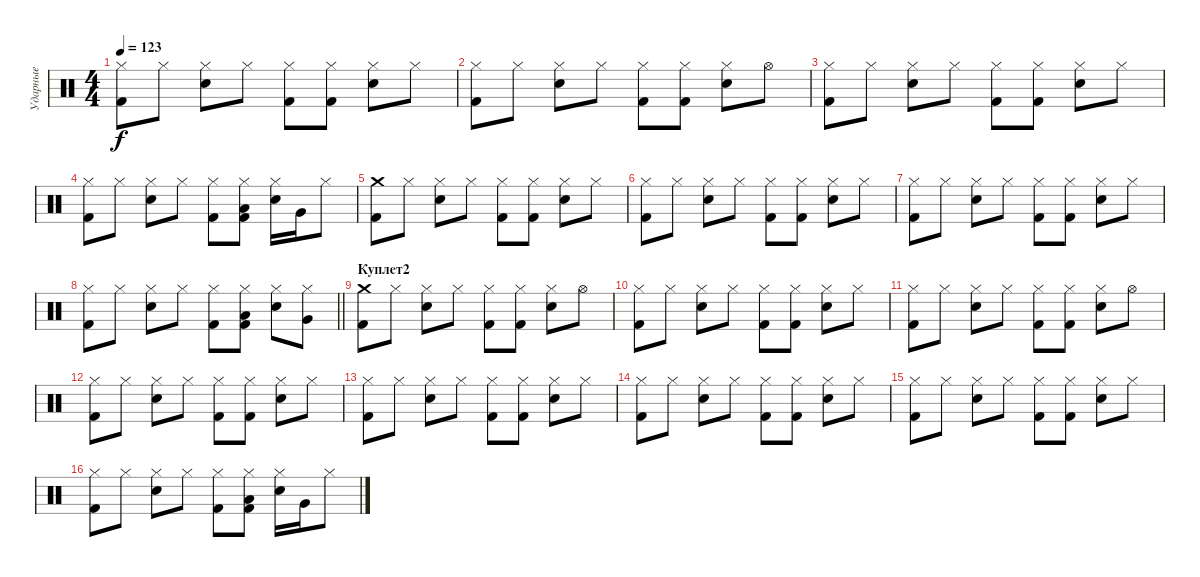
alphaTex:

\track ("Ударные" "Ударные") {instrument percussion}
\staff {score}
\articulation defaults
\ts (4 4)
\tempo 123
\clef neutral
\ks c
("Hi-Hat (closed)" "Kick (hit) 2").8{dy f} "Hi-Hat (closed)".8 ("Hi-Hat (closed)" "Electric Snare (hit)").8 "Hi-Hat (closed)".8 ("Hi-Hat (closed)" "Kick (hit) 2").8 ("Hi-Hat (closed)" "Kick (hit) 2").8 ("Hi-Hat (closed)" "Electric Snare (hit)").8 "Hi-Hat (closed)".8 |
("Hi-Hat (closed)" "Kick (hit) 2").8 "Hi-Hat (closed)".8 ("Hi-Hat (closed)" "Electric Snare (hit)").8 "Hi-Hat (closed)".8 ("Hi-Hat (closed)" "Kick (hit) 2").8 ("Hi-Hat (closed)" "Kick (hit) 2").8 ("Hi-Hat (closed)" "Electric Snare (hit)").8 "Hi-Hat (open)".8 |
("Hi-Hat (closed)" "Kick (hit) 2").8 "Hi-Hat (closed)".8 ("Hi-Hat (closed)" "Electric Snare (hit)").8 "Hi-Hat (closed)".8 ("Hi-Hat (closed)" "Kick (hit) 2").8 ("Hi-Hat (closed)" "Kick (hit) 2").8 ("Hi-Hat (closed)" "Electric Snare (hit)").8 "Hi-Hat (closed)".8 |
("Hi-Hat (closed)" "Kick (hit) 2").8 "Hi-Hat (closed)".8 ("Hi-Hat (closed)" "Electric Snare (hit)").8 "Hi-Hat (closed)".8 ("Hi-Hat (closed)" "Kick (hit) 2").8 ("Hi-Hat (closed)" "Low Tom (hit)" "Kick (hit) 2").8 ("Hi-Hat (closed)" "Electric Snare (hit)").16 "Very Low Tom (hit)".16 "Hi-Hat (closed)".8 |
("Crash medium (hit)" "Kick (hit) 2").8 "Hi-Hat (closed)".8 ("Hi-Hat (closed)" "Electric Snare (hit)").8 "Hi-Hat (closed)".8 ("Hi-Hat (closed)" "Kick (hit) 2").8 ("Hi-Hat (closed)" "Kick (hit) 2").8 ("Hi-Hat (closed)" "Electric Snare (hit)").8 "Hi-Hat (closed)".8 |
("Hi-Hat (closed)" "Kick (hit) 2").8 "Hi-Hat (closed)".8 ("Hi-Hat (closed)" "Electric Snare (hit)").8 "Hi-Hat (closed)".8 ("Hi-Hat (closed)" "Kick (hit) 2").8 ("Hi-Hat (closed)" "Kick (hit) 2").8 ("Hi-Hat (closed)" "Electric Snare (hit)").8 "Hi-Hat (closed)".8 |
("Hi-Hat (closed)" "Kick (hit) 2").8 "Hi-Hat (closed)".8 ("Hi-Hat (closed)" "Electric Snare (hit)").8 "Hi-Hat (closed)".8 ("Hi-Hat (closed)" "Kick (hit) 2").8 ("Hi-Hat (closed)" "Kick (hit) 2").8 ("Hi-Hat (closed)" "Electric Snare (hit)").8 "Hi-Hat (closed)".8 |
\barLineRight lightlight
("Hi-Hat (closed)" "Kick (hit) 2").8 "Hi-Hat (closed)".8 ("Hi-Hat (closed)" "Electric Snare (hit)").8 "Hi-Hat (closed)".8 ("Hi-Hat (closed)" "Kick (hit) 2").8 ("Hi-Hat (closed)" "Low Tom (hit)" "Kick (hit) 2").8 ("Hi-Hat (closed)" "Electric Snare (hit)").8 ("Hi-Hat (closed)" "Very Low Tom (hit)").8 |
\section ("" "Куплет2")
("Crash medium (hit)" "Kick (hit) 2").8 "Hi-Hat (closed)".8 ("Hi-Hat (closed)" "Electric Snare (hit)").8 "Hi-Hat (closed)".8 ("Hi-Hat (closed)" "Kick (hit) 2").8 ("Hi-Hat (closed)" "Kick (hit) 2").8 ("Hi-Hat (closed)" "Electric Snare (hit)").8 "Hi-Hat (open)".8 |
("Hi-Hat (closed)" "Kick (hit) 2").8 "Hi-Hat (closed)".8 ("Hi-Hat (closed)" "Electric Snare (hit)").8 "Hi-Hat (closed)".8 ("Hi-Hat (closed)" "Kick (hit) 2").8 ("Hi-Hat (closed)" "Kick (hit) 2").8 ("Hi-Hat (closed)" "Electric Snare (hit)").8 "Hi-Hat (closed)".8 |
("Hi-Hat (closed)" "Kick (hit) 2").8 "Hi-Hat (closed)".8 ("Hi-Hat (closed)" "Electric Snare (hit)").8 "Hi-Hat (closed)".8 ("Hi-Hat (closed)" "Kick (hit) 2").8 ("Hi-Hat (closed)" "Kick (hit) 2").8 ("Hi-Hat (closed)" "Electric Snare (hit)").8 "Hi-Hat (open)".8 |
("Hi-Hat (closed)" "Kick (hit) 2").8 "Hi-Hat (closed)".8 ("Hi-Hat (closed)" "Electric Snare (hit)").8 "Hi-Hat (closed)".8 ("Hi-Hat (closed)" "Kick (hit) 2").8 ("Hi-Hat (closed)" "Kick (hit) 2").8 ("Hi-Hat (closed)" "Electric Snare (hit)").8 "Hi-Hat (closed)".8 |
("Hi-Hat (closed)" "Kick (hit) 2").8 "Hi-Hat (closed)".8 ("Hi-Hat (closed)" "Electric Snare (hit)").8 "Hi-Hat (closed)".8 ("Hi-Hat (closed)" "Kick (hit) 2").8 ("Hi-Hat (closed)" "Kick (hit) 2").8 ("Hi-Hat (closed)" "Electric Snare (hit)").8 "Hi-Hat (closed)".8 |
("Hi-Hat (closed)" "Kick (hit) 2").8 "Hi-Hat (closed)".8 ("Hi-Hat (closed)" "Electric Snare (hit)").8 "Hi-Hat (closed)".8 ("Hi-Hat (closed)" "Kick (hit) 2").8 ("Hi-Hat (closed)" "Kick (hit) 2").8 ("Hi-Hat (closed)" "Electric Snare (hit)").8 "Hi-Hat (closed)".8 |
("Hi-Hat (closed)" "Kick (hit) 2").8 "Hi-Hat (closed)".8 ("Hi-Hat (closed)" "Electric Snare (hit)").8 "Hi-Hat (closed)".8 ("Hi-Hat (closed)" "Kick (hit) 2").8 ("Hi-Hat (closed)" "Kick (hit) 2").8 ("Hi-Hat (closed)" "Electric Snare (hit)").8 "Hi-Hat (closed)".8 |
("Hi-Hat (closed)" "Kick (hit) 2").8 "Hi-Hat (closed)".8 ("Hi-Hat (closed)" "Electric Snare (hit)").8 "Hi-Hat (closed)".8 ("Hi-Hat (closed)" "Kick (hit) 2").8 ("Hi-Hat (closed)" "Low Tom (hit)" "Kick (hit) 2").8 ("Hi-Hat (closed)" "Electric Snare (hit)").16 "Very Low Tom (hit)".16 "Hi-Hat (closed)".8
